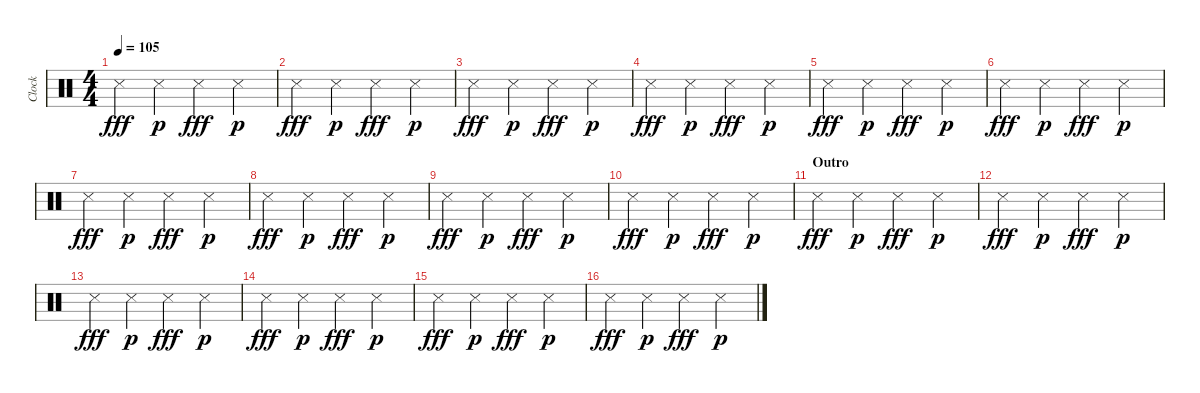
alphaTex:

\track ("Clock" "Clock") {instrument percussion}
\staff {score}
\articulation defaults
\ts (4 4)
\tempo 105
\clef neutral
\ks c "Metronome (hit)".4{dy fff} "Metronome (hit)".4{dy p} "Metronome (hit)".4{dy fff} "Metronome (hit)".4{dy p}
|
"Metronome (hit)".4{dy fff} "Metronome (hit)".4{dy p} "Metronome (hit)".4{dy fff} "Metronome (hit)".4{dy p} |
"Metronome (hit)".4{dy fff} "Metronome (hit)".4{dy p} "Metronome (hit)".4{dy fff} "Metronome (hit)".4{dy p} |
"Metronome (hit)".4{dy fff} "Metronome (hit)".4{dy p} "Metronome (hit)".4{dy fff} "Metronome (hit)".4{dy p} |
"Metronome (hit)".4{dy fff} "Metronome (hit)".4{dy p} "Metronome (hit)".4{dy fff} "Metronome (hit)".4{dy p} |
"Metronome (hit)".4{dy fff} "Metronome (hit)".4{dy p} "Metronome (hit)".4{dy fff} "Metronome (hit)".4{dy p} |
"Metronome (hit)".4{dy fff} "Metronome (hit)".4{dy p} "Metronome (hit)".4{dy fff} "Metronome (hit)".4{dy p} |
"Metronome (hit)".4{dy fff} "Metronome (hit)".4{dy p} "Metronome (hit)".4{dy fff} "Metronome (hit)".4{dy p} |
"Metronome (hit)".4{dy fff} "Metronome (hit)".4{dy p} "Metronome (hit)".4{dy fff} "Metronome (hit)".4{dy p} |
"Metronome (hit)".4{dy fff} "Metronome (hit)".4{dy p} "Metronome (hit)".4{dy fff} "Metronome (hit)".4{dy p} |
\section ("" "Outro")
"Metronome (hit)".4{dy fff} "Metronome (hit)".4{dy p} "Metronome (hit)".4{dy fff} "Metronome (hit)".4{dy p} |
"Metronome (hit)".4{dy fff} "Metronome (hit)".4{dy p} "Metronome (hit)".4{dy fff} "Metronome (hit)".4{dy p} |
"Metronome (hit)".4{dy fff} "Metronome (hit)".4{dy p} "Metronome (hit)".4{dy fff} "Metronome (hit)".4{dy p} |
"Metronome (hit)".4{dy fff} "Metronome (hit)".4{dy p} "Metronome (hit)".4{dy fff} "Metronome (hit)".4{dy p} |
"Metronome (hit)".4{dy fff} "Metronome (hit)".4{dy p} "Metronome (hit)".4{dy fff} "Metronome (hit)".4{dy p} |
"Metronome (hit)".4{dy fff} "Metronome (hit)".4{dy p} "Metronome (hit)".4{dy fff} "Metronome (hit)".4{dy p}
